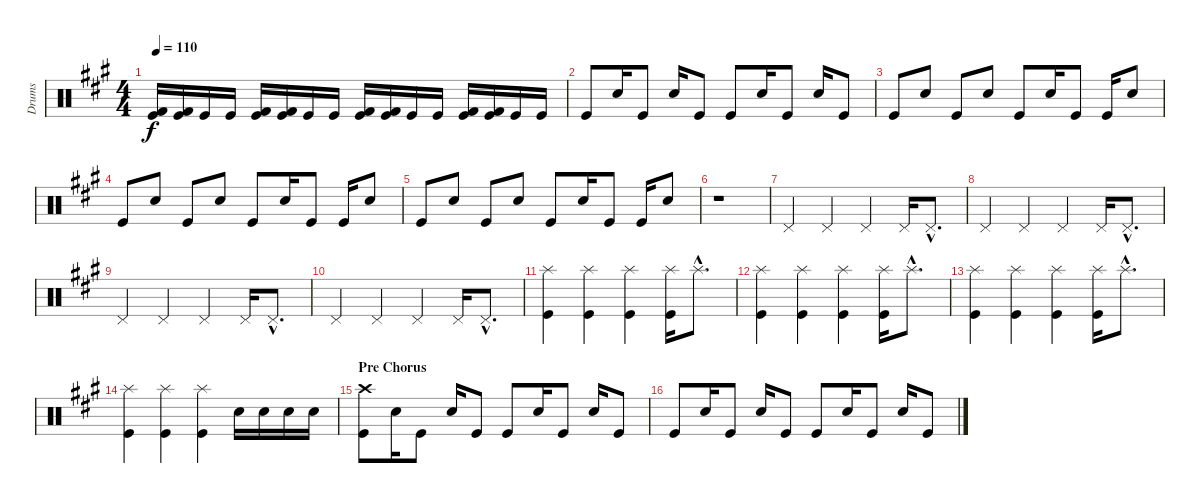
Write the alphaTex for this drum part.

\track ("Drums" "Drums") {instrument percussion}
\staff {score}
\articulation defaults
\ts (4 4)
\tempo 110
\clef neutral
\ks a
("Kick (hit) 2" "Kick (hit)").16{dy f} ("Kick (hit) 2" "Kick (hit)").16 "Kick (hit)".16 "Kick (hit)".16 ("Kick (hit) 2" "Kick (hit)").16 ("Kick (hit) 2" "Kick (hit)").16 "Kick (hit)".16 "Kick (hit)".16 ("Kick (hit) 2" "Kick (hit)").16 ("Kick (hit) 2" "Kick (hit)").16 "Kick (hit)".16 "Kick (hit)".16 ("Kick (hit) 2" "Kick (hit)").16 ("Kick (hit) 2" "Kick (hit)").16 "Kick (hit)".16 "Kick (hit)".16 |
"Kick (hit)".8 "Electric Snare (hit)".16 "Kick (hit)".8 "Electric Snare (hit)".16 "Kick (hit)".8 "Kick (hit)".8 "Electric Snare (hit)".16 "Kick (hit)".8 "Electric Snare (hit)".16 "Kick (hit)".8 |
"Kick (hit)".8 "Electric Snare (hit)".8 "Kick (hit)".8 "Electric Snare (hit)".8 "Kick (hit)".8 "Electric Snare (hit)".16 "Kick (hit)".8 "Kick (hit)".16 "Electric Snare (hit)".8 |
"Kick (hit)".8 "Electric Snare (hit)".8 "Kick (hit)".8 "Electric Snare (hit)".8 "Kick (hit)".8 "Electric Snare (hit)".16 "Kick (hit)".8 "Kick (hit)".16 "Electric Snare (hit)".8 |
"Kick (hit)".8 "Electric Snare (hit)".8 "Kick (hit)".8 "Electric Snare (hit)".8 "Kick (hit)".8 "Electric Snare (hit)".16 "Kick (hit)".8 "Kick (hit)".16 "Electric Snare (hit)".8 |
r.1 |
"Pedal Hi-Hat (hit)".4 "Pedal Hi-Hat (hit)".4 "Pedal Hi-Hat (hit)".4 "Pedal Hi-Hat (hit)".16 "Pedal Hi-Hat (hit)"{hac}.8{d} |
"Pedal Hi-Hat (hit)".4 "Pedal Hi-Hat (hit)".4 "Pedal Hi-Hat (hit)".4 "Pedal Hi-Hat (hit)".16 "Pedal Hi-Hat (hit)"{hac}.8{d} |
"Pedal Hi-Hat (hit)".4 "Pedal Hi-Hat (hit)".4 "Pedal Hi-Hat (hit)".4 "Pedal Hi-Hat (hit)".16 "Pedal Hi-Hat (hit)"{hac}.8{d} |
"Pedal Hi-Hat (hit)".4 "Pedal Hi-Hat (hit)".4 "Pedal Hi-Hat (hit)".4 "Pedal Hi-Hat (hit)".16 "Pedal Hi-Hat (hit)"{hac}.8{d} |
("Kick (hit)" "Splash (hit)").4 ("Kick (hit)" "Splash (hit)").4 ("Kick (hit)" "Splash (hit)").4 ("Kick (hit)" "Splash (hit)").16 "Splash (hit)"{hac}.8{d} |
("Kick (hit)" "Splash (hit)").4 ("Kick (hit)" "Splash (hit)").4 ("Kick (hit)" "Splash (hit)").4 ("Kick (hit)" "Splash (hit)").16 "Splash (hit)"{hac}.8{d} |
("Kick (hit)" "Splash (hit)").4 ("Kick (hit)" "Splash (hit)").4 ("Kick (hit)" "Splash (hit)").4 ("Kick (hit)" "Splash (hit)").16 "Splash (hit)"{hac}.8{d} |
("Kick (hit)" "Splash (hit)").4 ("Kick (hit)" "Splash (hit)").4 ("Kick (hit)" "Splash (hit)").4 "Electric Snare (hit)".16 "Electric Snare (hit)".16 "Electric Snare (hit)".16 "Electric Snare (hit)".16 |
\section ("" "Pre Chorus")
("Crash high (hit)" "Kick (hit)").8 "Electric Snare (hit)".16 "Kick (hit)".8 "Electric Snare (hit)".16 "Kick (hit)".8 "Kick (hit)".8 "Electric Snare (hit)".16 "Kick (hit)".8 "Electric Snare (hit)".16 "Kick (hit)".8 |
"Kick (hit)".8 "Electric Snare (hit)".16 "Kick (hit)".8 "Electric Snare (hit)".16 "Kick (hit)".8 "Kick (hit)".8 "Electric Snare (hit)".16 "Kick (hit)".8 "Electric Snare (hit)".16 "Kick (hit)".8
